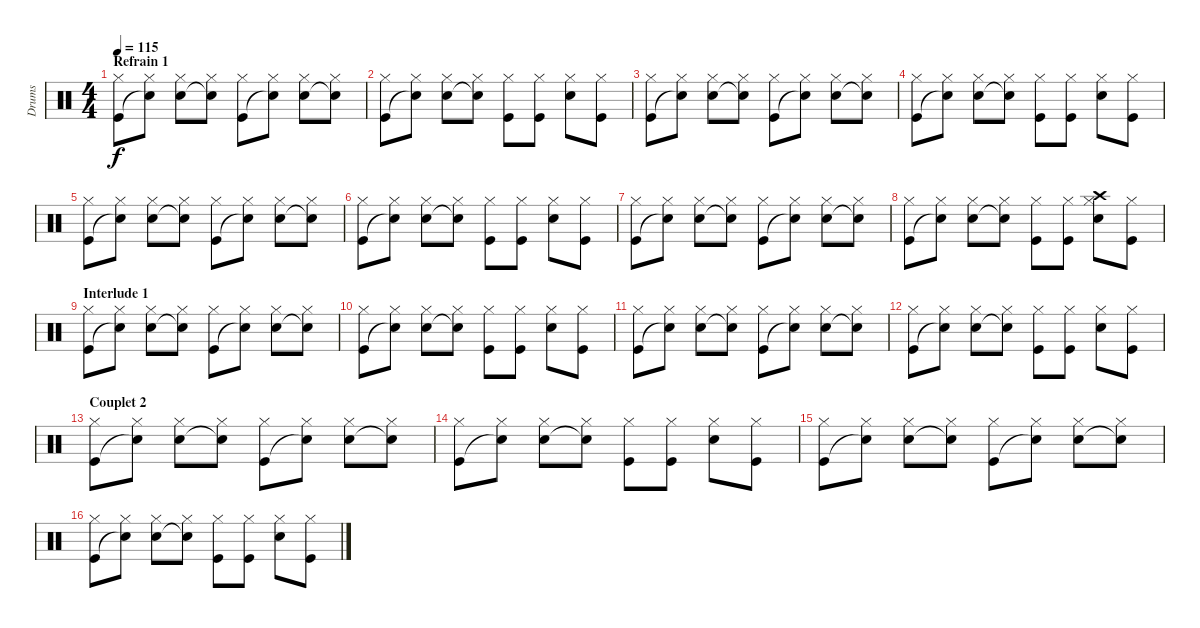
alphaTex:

\track ("Drums" "Drums") {instrument percussion}
\staff {score}
\articulation defaults
\ts (4 4)
\section ("" "Refrain 1")
\tempo 115
\clef neutral
\ks c
("Hi-Hat (closed)" "Kick (hit)").8{dy f} ("Hi-Hat (closed)" "Snare (hit)"{t}).8 ("Hi-Hat (closed)" "Snare (hit) 2").8 ("Hi-Hat (closed)" "Snare (hit)"{t}).8 ("Hi-Hat (closed)" "Kick (hit)").8 ("Hi-Hat (closed)" "Snare (hit)"{t}).8 ("Hi-Hat (closed)" "Snare (hit) 2").8 ("Hi-Hat (closed)" "Snare (hit)"{t}).8 |
("Hi-Hat (closed)" "Kick (hit)").8 ("Hi-Hat (closed)" "Snare (hit)"{t}).8 ("Hi-Hat (closed)" "Snare (hit) 2").8 ("Hi-Hat (closed)" "Snare (hit)"{t}).8 ("Hi-Hat (closed)" "Kick (hit)").8 ("Hi-Hat (closed)" "Kick (hit)").8 ("Hi-Hat (closed)" "Snare (hit) 2").8 ("Hi-Hat (closed)" "Kick (hit)").8 |
("Hi-Hat (closed)" "Kick (hit)").8 ("Hi-Hat (closed)" "Snare (hit)"{t}).8 ("Hi-Hat (closed)" "Snare (hit) 2").8 ("Hi-Hat (closed)" "Snare (hit)"{t}).8 ("Hi-Hat (closed)" "Kick (hit)").8 ("Hi-Hat (closed)" "Snare (hit)"{t}).8 ("Hi-Hat (closed)" "Snare (hit) 2").8 ("Hi-Hat (closed)" "Snare (hit)"{t}).8 |
("Hi-Hat (closed)" "Kick (hit)").8 ("Hi-Hat (closed)" "Snare (hit)"{t}).8 ("Hi-Hat (closed)" "Snare (hit) 2").8 ("Hi-Hat (closed)" "Snare (hit)"{t}).8 ("Hi-Hat (closed)" "Kick (hit)").8 ("Hi-Hat (closed)" "Kick (hit)").8 ("Hi-Hat (closed)" "Snare (hit) 2").8 ("Hi-Hat (closed)" "Kick (hit)").8 |
("Hi-Hat (closed)" "Kick (hit)").8 ("Hi-Hat (closed)" "Snare (hit)"{t}).8 ("Hi-Hat (closed)" "Snare (hit) 2").8 ("Hi-Hat (closed)" "Snare (hit)"{t}).8 ("Hi-Hat (closed)" "Kick (hit)").8 ("Hi-Hat (closed)" "Snare (hit)"{t}).8 ("Hi-Hat (closed)" "Snare (hit) 2").8 ("Hi-Hat (closed)" "Snare (hit)"{t}).8 |
("Hi-Hat (closed)" "Kick (hit)").8 ("Hi-Hat (closed)" "Snare (hit)"{t}).8 ("Hi-Hat (closed)" "Snare (hit) 2").8 ("Hi-Hat (closed)" "Snare (hit)"{t}).8 ("Hi-Hat (closed)" "Kick (hit)").8 ("Hi-Hat (closed)" "Kick (hit)").8 ("Hi-Hat (closed)" "Snare (hit) 2").8 ("Hi-Hat (closed)" "Kick (hit)").8 |
("Hi-Hat (closed)" "Kick (hit)").8 ("Hi-Hat (closed)" "Snare (hit)"{t}).8 ("Hi-Hat (closed)" "Snare (hit) 2").8 ("Hi-Hat (closed)" "Snare (hit)"{t}).8 ("Hi-Hat (closed)" "Kick (hit)").8 ("Hi-Hat (closed)" "Snare (hit)"{t}).8 ("Hi-Hat (closed)" "Snare (hit) 2").8 ("Hi-Hat (closed)" "Snare (hit)"{t}).8 |
("Hi-Hat (closed)" "Kick (hit)").8 ("Hi-Hat (closed)" "Snare (hit)"{t}).8 ("Hi-Hat (closed)" "Snare (hit) 2").8 ("Hi-Hat (closed)" "Snare (hit)"{t}).8 ("Hi-Hat (closed)" "Kick (hit)").8 ("Hi-Hat (closed)" "Kick (hit)").8 ("Hi-Hat (closed)" "Crash high (hit)" "Snare (hit) 2").8 ("Hi-Hat (closed)" "Kick (hit)").8 |
\section ("" "Interlude 1")
("Hi-Hat (closed)" "Kick (hit)").8 ("Hi-Hat (closed)" "Snare (hit)"{t}).8 ("Hi-Hat (closed)" "Snare (hit) 2").8 ("Hi-Hat (closed)" "Snare (hit)"{t}).8 ("Hi-Hat (closed)" "Kick (hit)").8 ("Hi-Hat (closed)" "Snare (hit)"{t}).8 ("Hi-Hat (closed)" "Snare (hit) 2").8 ("Hi-Hat (closed)" "Snare (hit)"{t}).8 |
("Hi-Hat (closed)" "Kick (hit)").8 ("Hi-Hat (closed)" "Snare (hit)"{t}).8 ("Hi-Hat (closed)" "Snare (hit) 2").8 ("Hi-Hat (closed)" "Snare (hit)"{t}).8 ("Hi-Hat (closed)" "Kick (hit)").8 ("Hi-Hat (closed)" "Kick (hit)").8 ("Hi-Hat (closed)" "Snare (hit) 2").8 ("Hi-Hat (closed)" "Kick (hit)").8 |
("Hi-Hat (closed)" "Kick (hit)").8 ("Hi-Hat (closed)" "Snare (hit)"{t}).8 ("Hi-Hat (closed)" "Snare (hit) 2").8 ("Hi-Hat (closed)" "Snare (hit)"{t}).8 ("Hi-Hat (closed)" "Kick (hit)").8 ("Hi-Hat (closed)" "Snare (hit)"{t}).8 ("Hi-Hat (closed)" "Snare (hit) 2").8 ("Hi-Hat (closed)" "Snare (hit)"{t}).8 |
("Hi-Hat (closed)" "Kick (hit)").8 ("Hi-Hat (closed)" "Snare (hit)"{t}).8 ("Hi-Hat (closed)" "Snare (hit) 2").8 ("Hi-Hat (closed)" "Snare (hit)"{t}).8 ("Hi-Hat (closed)" "Kick (hit)").8 ("Hi-Hat (closed)" "Kick (hit)").8 ("Hi-Hat (closed)" "Snare (hit) 2").8 ("Hi-Hat (closed)" "Kick (hit)").8 |
\section ("" "Couplet 2")
("Hi-Hat (closed)" "Kick (hit)").8 ("Hi-Hat (closed)" "Snare (hit)"{t}).8 ("Hi-Hat (closed)" "Snare (hit) 2").8 ("Hi-Hat (closed)" "Snare (hit)"{t}).8 ("Hi-Hat (closed)" "Kick (hit)").8 ("Hi-Hat (closed)" "Snare (hit)"{t}).8 ("Hi-Hat (closed)" "Snare (hit) 2").8 ("Hi-Hat (closed)" "Snare (hit)"{t}).8 |
("Hi-Hat (closed)" "Kick (hit)").8 ("Hi-Hat (closed)" "Snare (hit)"{t}).8 ("Hi-Hat (closed)" "Snare (hit) 2").8 ("Hi-Hat (closed)" "Snare (hit)"{t}).8 ("Hi-Hat (closed)" "Kick (hit)").8 ("Hi-Hat (closed)" "Kick (hit)").8 ("Hi-Hat (closed)" "Snare (hit) 2").8 ("Hi-Hat (closed)" "Kick (hit)").8 |
("Hi-Hat (closed)" "Kick (hit)").8 ("Hi-Hat (closed)" "Snare (hit)"{t}).8 ("Hi-Hat (closed)" "Snare (hit) 2").8 ("Hi-Hat (closed)" "Snare (hit)"{t}).8 ("Hi-Hat (closed)" "Kick (hit)").8 ("Hi-Hat (closed)" "Snare (hit)"{t}).8 ("Hi-Hat (closed)" "Snare (hit) 2").8 ("Hi-Hat (closed)" "Snare (hit)"{t}).8 |
("Hi-Hat (closed)" "Kick (hit)").8 ("Hi-Hat (closed)" "Snare (hit)"{t}).8 ("Hi-Hat (closed)" "Snare (hit) 2").8 ("Hi-Hat (closed)" "Snare (hit)"{t}).8 ("Hi-Hat (closed)" "Kick (hit)").8 ("Hi-Hat (closed)" "Kick (hit)").8 ("Hi-Hat (closed)" "Snare (hit) 2").8 ("Hi-Hat (closed)" "Kick (hit)").8
